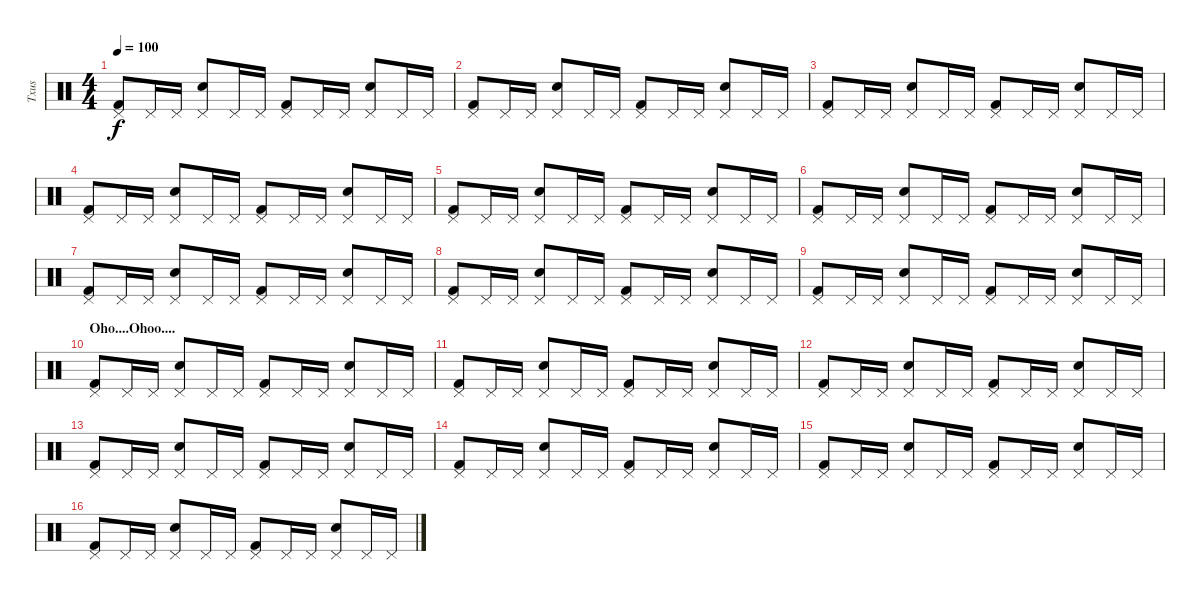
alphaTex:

\track ("Txus" "Txus") {instrument percussion}
\staff {score}
\articulation defaults
\ts (4 4)
\tempo 100
\clef neutral
\ks c
("Pedal Hi-Hat (hit)" "Kick (hit) 2").8{dy f} "Pedal Hi-Hat (hit)".16 "Pedal Hi-Hat (hit)".16 ("Pedal Hi-Hat (hit)" "Snare (hit) 2").8 "Pedal Hi-Hat (hit)".16 "Pedal Hi-Hat (hit)".16 ("Pedal Hi-Hat (hit)" "Kick (hit) 2").8 "Pedal Hi-Hat (hit)".16 "Pedal Hi-Hat (hit)".16 ("Pedal Hi-Hat (hit)" "Snare (hit) 2").8 "Pedal Hi-Hat (hit)".16 "Pedal Hi-Hat (hit)".16 |
("Pedal Hi-Hat (hit)" "Kick (hit) 2").8 "Pedal Hi-Hat (hit)".16 "Pedal Hi-Hat (hit)".16 ("Pedal Hi-Hat (hit)" "Snare (hit) 2").8 "Pedal Hi-Hat (hit)".16 "Pedal Hi-Hat (hit)".16 ("Pedal Hi-Hat (hit)" "Kick (hit) 2").8 "Pedal Hi-Hat (hit)".16 "Pedal Hi-Hat (hit)".16 ("Pedal Hi-Hat (hit)" "Snare (hit) 2").8 "Pedal Hi-Hat (hit)".16 "Pedal Hi-Hat (hit)".16 |
("Pedal Hi-Hat (hit)" "Kick (hit) 2").8 "Pedal Hi-Hat (hit)".16 "Pedal Hi-Hat (hit)".16 ("Pedal Hi-Hat (hit)" "Snare (hit) 2").8 "Pedal Hi-Hat (hit)".16 "Pedal Hi-Hat (hit)".16 ("Pedal Hi-Hat (hit)" "Kick (hit) 2").8 "Pedal Hi-Hat (hit)".16 "Pedal Hi-Hat (hit)".16 ("Pedal Hi-Hat (hit)" "Snare (hit) 2").8 "Pedal Hi-Hat (hit)".16 "Pedal Hi-Hat (hit)".16 |
("Pedal Hi-Hat (hit)" "Kick (hit) 2").8 "Pedal Hi-Hat (hit)".16 "Pedal Hi-Hat (hit)".16 ("Pedal Hi-Hat (hit)" "Snare (hit) 2").8 "Pedal Hi-Hat (hit)".16 "Pedal Hi-Hat (hit)".16 ("Pedal Hi-Hat (hit)" "Kick (hit) 2").8 "Pedal Hi-Hat (hit)".16 "Pedal Hi-Hat (hit)".16 ("Pedal Hi-Hat (hit)" "Snare (hit) 2").8 "Pedal Hi-Hat (hit)".16 "Pedal Hi-Hat (hit)".16 |
("Pedal Hi-Hat (hit)" "Kick (hit) 2").8 "Pedal Hi-Hat (hit)".16 "Pedal Hi-Hat (hit)".16 ("Pedal Hi-Hat (hit)" "Snare (hit) 2").8 "Pedal Hi-Hat (hit)".16 "Pedal Hi-Hat (hit)".16 ("Pedal Hi-Hat (hit)" "Kick (hit) 2").8 "Pedal Hi-Hat (hit)".16 "Pedal Hi-Hat (hit)".16 ("Pedal Hi-Hat (hit)" "Snare (hit) 2").8 "Pedal Hi-Hat (hit)".16 "Pedal Hi-Hat (hit)".16 |
("Pedal Hi-Hat (hit)" "Kick (hit) 2").8 "Pedal Hi-Hat (hit)".16 "Pedal Hi-Hat (hit)".16 ("Pedal Hi-Hat (hit)" "Snare (hit) 2").8 "Pedal Hi-Hat (hit)".16 "Pedal Hi-Hat (hit)".16 ("Pedal Hi-Hat (hit)" "Kick (hit) 2").8 "Pedal Hi-Hat (hit)".16 "Pedal Hi-Hat (hit)".16 ("Pedal Hi-Hat (hit)" "Snare (hit) 2").8 "Pedal Hi-Hat (hit)".16 "Pedal Hi-Hat (hit)".16 |
("Pedal Hi-Hat (hit)" "Kick (hit) 2").8 "Pedal Hi-Hat (hit)".16 "Pedal Hi-Hat (hit)".16 ("Pedal Hi-Hat (hit)" "Snare (hit) 2").8 "Pedal Hi-Hat (hit)".16 "Pedal Hi-Hat (hit)".16 ("Pedal Hi-Hat (hit)" "Kick (hit) 2").8 "Pedal Hi-Hat (hit)".16 "Pedal Hi-Hat (hit)".16 ("Pedal Hi-Hat (hit)" "Snare (hit) 2").8 "Pedal Hi-Hat (hit)".16 "Pedal Hi-Hat (hit)".16 |
("Pedal Hi-Hat (hit)" "Kick (hit) 2").8 "Pedal Hi-Hat (hit)".16 "Pedal Hi-Hat (hit)".16 ("Pedal Hi-Hat (hit)" "Snare (hit) 2").8 "Pedal Hi-Hat (hit)".16 "Pedal Hi-Hat (hit)".16 ("Pedal Hi-Hat (hit)" "Kick (hit) 2").8 "Pedal Hi-Hat (hit)".16 "Pedal Hi-Hat (hit)".16 ("Pedal Hi-Hat (hit)" "Snare (hit) 2").8 "Pedal Hi-Hat (hit)".16 "Pedal Hi-Hat (hit)".16 |
("Pedal Hi-Hat (hit)" "Kick (hit) 2").8 "Pedal Hi-Hat (hit)".16 "Pedal Hi-Hat (hit)".16 ("Pedal Hi-Hat (hit)" "Snare (hit) 2").8 "Pedal Hi-Hat (hit)".16 "Pedal Hi-Hat (hit)".16 ("Pedal Hi-Hat (hit)" "Kick (hit) 2").8 "Pedal Hi-Hat (hit)".16 "Pedal Hi-Hat (hit)".16 ("Pedal Hi-Hat (hit)" "Snare (hit) 2").8 "Pedal Hi-Hat (hit)".16 "Pedal Hi-Hat (hit)".16 |
\section ("" "Oho....Ohoo....")
("Pedal Hi-Hat (hit)" "Kick (hit) 2").8 "Pedal Hi-Hat (hit)".16 "Pedal Hi-Hat (hit)".16 ("Pedal Hi-Hat (hit)" "Snare (hit) 2").8 "Pedal Hi-Hat (hit)".16 "Pedal Hi-Hat (hit)".16 ("Pedal Hi-Hat (hit)" "Kick (hit) 2").8 "Pedal Hi-Hat (hit)".16 "Pedal Hi-Hat (hit)".16 ("Pedal Hi-Hat (hit)" "Snare (hit) 2").8 "Pedal Hi-Hat (hit)".16 "Pedal Hi-Hat (hit)".16 |
("Pedal Hi-Hat (hit)" "Kick (hit) 2").8 "Pedal Hi-Hat (hit)".16 "Pedal Hi-Hat (hit)".16 ("Pedal Hi-Hat (hit)" "Snare (hit) 2").8 "Pedal Hi-Hat (hit)".16 "Pedal Hi-Hat (hit)".16 ("Pedal Hi-Hat (hit)" "Kick (hit) 2").8 "Pedal Hi-Hat (hit)".16 "Pedal Hi-Hat (hit)".16 ("Pedal Hi-Hat (hit)" "Snare (hit) 2").8 "Pedal Hi-Hat (hit)".16 "Pedal Hi-Hat (hit)".16 |
("Pedal Hi-Hat (hit)" "Kick (hit) 2").8 "Pedal Hi-Hat (hit)".16 "Pedal Hi-Hat (hit)".16 ("Pedal Hi-Hat (hit)" "Snare (hit) 2").8 "Pedal Hi-Hat (hit)".16 "Pedal Hi-Hat (hit)".16 ("Pedal Hi-Hat (hit)" "Kick (hit) 2").8 "Pedal Hi-Hat (hit)".16 "Pedal Hi-Hat (hit)".16 ("Pedal Hi-Hat (hit)" "Snare (hit) 2").8 "Pedal Hi-Hat (hit)".16 "Pedal Hi-Hat (hit)".16 |
("Pedal Hi-Hat (hit)" "Kick (hit) 2").8 "Pedal Hi-Hat (hit)".16 "Pedal Hi-Hat (hit)".16 ("Pedal Hi-Hat (hit)" "Snare (hit) 2").8 "Pedal Hi-Hat (hit)".16 "Pedal Hi-Hat (hit)".16 ("Pedal Hi-Hat (hit)" "Kick (hit) 2").8 "Pedal Hi-Hat (hit)".16 "Pedal Hi-Hat (hit)".16 ("Pedal Hi-Hat (hit)" "Snare (hit) 2").8 "Pedal Hi-Hat (hit)".16 "Pedal Hi-Hat (hit)".16 |
("Pedal Hi-Hat (hit)" "Kick (hit) 2").8 "Pedal Hi-Hat (hit)".16 "Pedal Hi-Hat (hit)".16 ("Pedal Hi-Hat (hit)" "Snare (hit) 2").8 "Pedal Hi-Hat (hit)".16 "Pedal Hi-Hat (hit)".16 ("Pedal Hi-Hat (hit)" "Kick (hit) 2").8 "Pedal Hi-Hat (hit)".16 "Pedal Hi-Hat (hit)".16 ("Pedal Hi-Hat (hit)" "Snare (hit) 2").8 "Pedal Hi-Hat (hit)".16 "Pedal Hi-Hat (hit)".16 |
("Pedal Hi-Hat (hit)" "Kick (hit) 2").8 "Pedal Hi-Hat (hit)".16 "Pedal Hi-Hat (hit)".16 ("Pedal Hi-Hat (hit)" "Snare (hit) 2").8 "Pedal Hi-Hat (hit)".16 "Pedal Hi-Hat (hit)".16 ("Pedal Hi-Hat (hit)" "Kick (hit) 2").8 "Pedal Hi-Hat (hit)".16 "Pedal Hi-Hat (hit)".16 ("Pedal Hi-Hat (hit)" "Snare (hit) 2").8 "Pedal Hi-Hat (hit)".16 "Pedal Hi-Hat (hit)".16 |
("Pedal Hi-Hat (hit)" "Kick (hit) 2").8 "Pedal Hi-Hat (hit)".16 "Pedal Hi-Hat (hit)".16 ("Pedal Hi-Hat (hit)" "Snare (hit) 2").8 "Pedal Hi-Hat (hit)".16 "Pedal Hi-Hat (hit)".16 ("Pedal Hi-Hat (hit)" "Kick (hit) 2").8 "Pedal Hi-Hat (hit)".16 "Pedal Hi-Hat (hit)".16 ("Pedal Hi-Hat (hit)" "Snare (hit) 2").8 "Pedal Hi-Hat (hit)".16 "Pedal Hi-Hat (hit)".16
